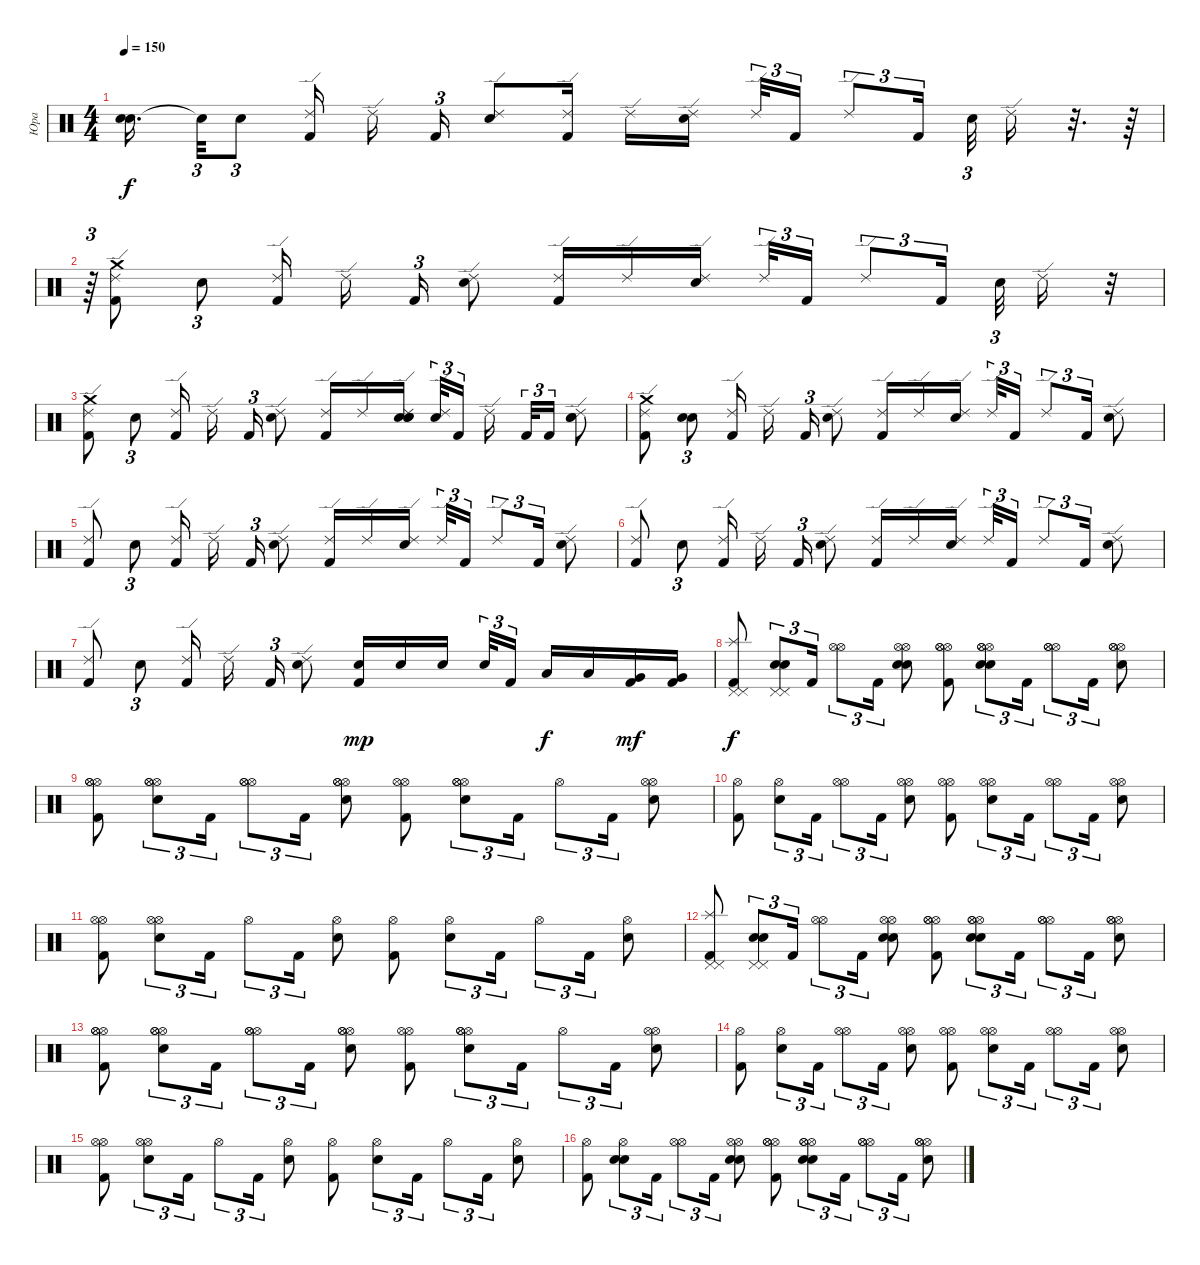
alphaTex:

\track ("Юра" "Юра") {instrument percussion}
\staff {score}
\articulation defaults
\ts (4 4)
\tempo 150
\clef neutral
\ks c
("Snare (hit)"{t} "Snare (hit)"{t}).16{d dy f beam splitsecondary} "Snare (hit)"{t}.32{tu (3 2)} "Electric Snare (hit)".8{tu (3 2)} ("Ride (edge) 2" "Kick (hit) 2").16 "Ride (edge) 2".16{beam splitsecondary} "Kick (hit) 2".16{tu (3 2)} ("Ride (edge) 2" "Electric Snare (hit)").8 ("Ride (edge) 2" "Kick (hit) 2").16 "Ride (edge) 2".16 ("Ride (edge) 2" "Electric Snare (hit)").16{beam splitsecondary} "Ride (edge) 2".32{tu (3 2)} "Kick (hit) 2".16{tu (3 2)} "Ride (edge) 2".8{tu (3 2)} "Kick (hit) 2".16{tu (3 2) beam splitsecondary} "Electric Snare (hit)".32{tu (3 2)} "Ride (edge) 2".16 r.32{d} r.64 |
r.64{tu (3 2)} ("Ride (edge) 2" "Crash medium (hit)" "Kick (hit) 2").8 "Electric Snare (hit)".8{tu (3 2)} ("Kick (hit) 2" "Ride (edge) 2").16 "Ride (edge) 2".16{beam splitsecondary} "Kick (hit) 2".16{tu (3 2)} ("Ride (edge) 2" "Electric Snare (hit)").8 ("Ride (edge) 2" "Kick (hit) 2").16 "Ride (edge) 2".16 ("Ride (edge) 2" "Electric Snare (hit)").16{beam splitsecondary} "Ride (edge) 2".32{tu (3 2)} "Kick (hit) 2".16{tu (3 2)} "Ride (edge) 2".8{tu (3 2)} "Kick (hit) 2".16{tu (3 2) beam splitsecondary} "Electric Snare (hit)".32{tu (3 2)} "Ride (edge) 2".16 r.32 |
("Ride (edge) 2" "Crash medium (hit)" "Kick (hit) 2").8 "Electric Snare (hit)".8{tu (3 2)} ("Kick (hit) 2" "Ride (edge) 2").16 "Ride (edge) 2".16{beam splitsecondary} "Kick (hit) 2".16{tu (3 2)} ("Ride (edge) 2" "Electric Snare (hit)").8 ("Ride (edge) 2" "Kick (hit) 2").16 "Ride (edge) 2".16 ("Ride (edge) 2" "Electric Snare (hit)" "Electric Snare (hit)" "Electric Snare (hit)").16{beam splitsecondary} ("Ride (edge) 2" "Electric Snare (hit)").32{tu (3 2)} "Kick (hit) 2".16{tu (3 2)} "Ride (edge) 2".16{beam splitsecondary} "Kick (hit) 2".32{tu (3 2)} "Kick (hit) 2".16{tu (3 2)} ("Electric Snare (hit)" "Electric Snare (hit)" "Ride (edge) 2").8 |
("Ride (edge) 2" "Kick (hit) 2" "Crash medium (hit)").8 ("Electric Snare (hit)" "Electric Snare (hit)").8{tu (3 2)} ("Ride (edge) 2" "Kick (hit) 2").16 "Ride (edge) 2".16{beam splitsecondary} "Kick (hit) 2".16{tu (3 2)} ("Ride (edge) 2" "Electric Snare (hit)").8 ("Ride (edge) 2" "Kick (hit) 2").16 "Ride (edge) 2".16 ("Ride (edge) 2" "Electric Snare (hit)").16{beam splitsecondary} "Ride (edge) 2".32{tu (3 2)} "Kick (hit) 2".16{tu (3 2)} "Ride (edge) 2".8{tu (3 2)} "Kick (hit) 2".16{tu (3 2)} ("Ride (edge) 2" "Electric Snare (hit)").8 |
("Ride (edge) 2" "Kick (hit) 2").8 "Electric Snare (hit)".8{tu (3 2)} ("Ride (edge) 2" "Kick (hit) 2").16 "Ride (edge) 2".16{beam splitsecondary} "Kick (hit) 2".16{tu (3 2)} ("Electric Snare (hit)" "Ride (edge) 2").8 ("Ride (edge) 2" "Kick (hit) 2").16 "Ride (edge) 2".16 ("Ride (edge) 2" "Electric Snare (hit)").16{beam splitsecondary} "Ride (edge) 2".32{tu (3 2)} "Kick (hit) 2".16{tu (3 2)} "Ride (edge) 2".8{tu (3 2)} "Kick (hit) 2".16{tu (3 2)} ("Ride (edge) 2" "Electric Snare (hit)").8 |
("Kick (hit) 2" "Ride (edge) 2").8 "Electric Snare (hit)".8{tu (3 2)} ("Kick (hit) 2" "Ride (edge) 2").16 "Ride (edge) 2".16{beam splitsecondary} "Kick (hit) 2".16{tu (3 2)} ("Electric Snare (hit)" "Ride (edge) 2").8 ("Kick (hit) 2" "Ride (edge) 2").16 "Ride (edge) 2".16 ("Electric Snare (hit)" "Ride (edge) 2").16{beam splitsecondary} "Ride (edge) 2".32{tu (3 2)} "Kick (hit) 2".16{tu (3 2)} "Ride (edge) 2".8{tu (3 2)} "Kick (hit) 2".16{tu (3 2)} ("Electric Snare (hit)" "Ride (edge) 2").8 |
("Kick (hit) 2" "Ride (edge) 2").8 "Electric Snare (hit)".8{tu (3 2)} ("Kick (hit) 2" "Ride (edge) 2").16 "Ride (edge) 2".16{beam splitsecondary} "Kick (hit) 2".16{tu (3 2)} ("Electric Snare (hit)" "Ride (edge) 2").8 ("Electric Snare (hit)" "Kick (hit) 2").16{dy mp} "Electric Snare (hit)".16 "Electric Snare (hit)".16{beam splitsecondary} "Electric Snare (hit)".32{tu (3 2)} "Kick (hit) 2".16{tu (3 2)} "Low Tom (hit)".16{dy f} "Low Tom (hit)".16 ("Kick (hit) 2" "Very Low Tom (hit)").16{dy mf} ("Very Low Tom (hit)" "Kick (hit) 2").16 |
("Kick (hit) 2" "Splash (hit)" "Pedal Hi-Hat (hit)" "Pedal Hi-Hat (hit)").8{dy f} ("Electric Snare (hit)" "Pedal Hi-Hat (hit)" "Pedal Hi-Hat (hit)" "Electric Snare (hit)").8{tu (3 2)} "Kick (hit) 2".16{tu (3 2)} ("Hi-Hat (open)" "Hi-Hat (open)").8{tu (3 2)} "Kick (hit) 2".16{tu (3 2)} ("Hi-Hat (open)" "Hi-Hat (open)" "Electric Snare (hit)" "Electric Snare (hit)").8 ("Kick (hit) 2" "Hi-Hat (open)" "Hi-Hat (open)" "Hi-Hat (open)").8 ("Hi-Hat (open)" "Hi-Hat (open)" "Hi-Hat (open)" "Electric Snare (hit)" "Electric Snare (hit)").8{tu (3 2)} "Kick (hit) 2".16{tu (3 2)} ("Hi-Hat (open)" "Hi-Hat (open)" "Hi-Hat (open)").8{tu (3 2)} "Kick (hit) 2".16{tu (3 2)} ("Hi-Hat (open)" "Electric Snare (hit)" "Hi-Hat (open)" "Hi-Hat (open)").8 |
("Kick (hit) 2" "Hi-Hat (open)" "Hi-Hat (open)" "Hi-Hat (open)").8 ("Hi-Hat (open)" "Hi-Hat (open)" "Hi-Hat (open)" "Electric Snare (hit)").8{tu (3 2)} "Kick (hit) 2".16{tu (3 2)} ("Hi-Hat (open)" "Hi-Hat (open)" "Hi-Hat (open)").8{tu (3 2)} "Kick (hit) 2".16{tu (3 2)} ("Hi-Hat (open)" "Hi-Hat (open)" "Hi-Hat (open)" "Electric Snare (hit)").8 ("Kick (hit) 2" "Hi-Hat (open)" "Hi-Hat (open)").8 ("Electric Snare (hit)" "Hi-Hat (open)" "Hi-Hat (open)" "Hi-Hat (open)").8{tu (3 2)} "Kick (hit) 2".16{tu (3 2)} "Hi-Hat (open)".8{tu (3 2)} "Kick (hit) 2".16{tu (3 2)} ("Hi-Hat (open)" "Hi-Hat (open)" "Electric Snare (hit)").8 |
("Kick (hit) 2" "Hi-Hat (open)").8 ("Electric Snare (hit)" "Hi-Hat (open)").8{tu (3 2)} "Kick (hit) 2".16{tu (3 2)} ("Hi-Hat (open)" "Hi-Hat (open)").8{tu (3 2)} "Kick (hit) 2".16{tu (3 2)} ("Hi-Hat (open)" "Electric Snare (hit)" "Hi-Hat (open)").8 ("Kick (hit) 2" "Hi-Hat (open)" "Hi-Hat (open)").8 ("Hi-Hat (open)" "Hi-Hat (open)" "Electric Snare (hit)").8{tu (3 2)} "Kick (hit) 2".16{tu (3 2)} ("Hi-Hat (open)" "Hi-Hat (open)").8{tu (3 2)} "Kick (hit) 2".16{tu (3 2)} ("Hi-Hat (open)" "Electric Snare (hit)" "Hi-Hat (open)").8 |
("Kick (hit) 2" "Hi-Hat (open)" "Hi-Hat (open)").8 ("Electric Snare (hit)" "Hi-Hat (open)" "Hi-Hat (open)").8{tu (3 2)} "Kick (hit) 2".16{tu (3 2)} "Hi-Hat (open)".8{tu (3 2)} "Kick (hit) 2".16{tu (3 2)} ("Electric Snare (hit)" "Hi-Hat (open)").8 ("Hi-Hat (open)" "Kick (hit) 2").8 ("Hi-Hat (open)" "Electric Snare (hit)").8{tu (3 2)} "Kick (hit) 2".16{tu (3 2)} "Hi-Hat (open)".8{tu (3 2)} "Kick (hit) 2".16{tu (3 2)} ("Electric Snare (hit)" "Hi-Hat (open)").8 |
("Kick (hit) 2" "Splash (hit)" "Pedal Hi-Hat (hit)" "Pedal Hi-Hat (hit)").8 ("Electric Snare (hit)" "Pedal Hi-Hat (hit)" "Pedal Hi-Hat (hit)" "Electric Snare (hit)").8{tu (3 2)} "Kick (hit) 2".16{tu (3 2)} ("Hi-Hat (open)" "Hi-Hat (open)").8{tu (3 2)} "Kick (hit) 2".16{tu (3 2)} ("Hi-Hat (open)" "Hi-Hat (open)" "Electric Snare (hit)" "Electric Snare (hit)").8 ("Kick (hit) 2" "Hi-Hat (open)" "Hi-Hat (open)" "Hi-Hat (open)").8 ("Hi-Hat (open)" "Hi-Hat (open)" "Hi-Hat (open)" "Electric Snare (hit)" "Electric Snare (hit)").8{tu (3 2)} "Kick (hit) 2".16{tu (3 2)} ("Hi-Hat (open)" "Hi-Hat (open)" "Hi-Hat (open)").8{tu (3 2)} "Kick (hit) 2".16{tu (3 2)} ("Hi-Hat (open)" "Electric Snare (hit)" "Hi-Hat (open)" "Hi-Hat (open)").8 |
("Kick (hit) 2" "Hi-Hat (open)" "Hi-Hat (open)" "Hi-Hat (open)").8 ("Hi-Hat (open)" "Hi-Hat (open)" "Hi-Hat (open)" "Electric Snare (hit)").8{tu (3 2)} "Kick (hit) 2".16{tu (3 2)} ("Hi-Hat (open)" "Hi-Hat (open)" "Hi-Hat (open)").8{tu (3 2)} "Kick (hit) 2".16{tu (3 2)} ("Hi-Hat (open)" "Hi-Hat (open)" "Hi-Hat (open)" "Electric Snare (hit)").8 ("Kick (hit) 2" "Hi-Hat (open)" "Hi-Hat (open)").8 ("Electric Snare (hit)" "Hi-Hat (open)" "Hi-Hat (open)" "Hi-Hat (open)").8{tu (3 2)} "Kick (hit) 2".16{tu (3 2)} "Hi-Hat (open)".8{tu (3 2)} "Kick (hit) 2".16{tu (3 2)} ("Hi-Hat (open)" "Hi-Hat (open)" "Electric Snare (hit)").8 |
("Kick (hit) 2" "Hi-Hat (open)").8 ("Electric Snare (hit)" "Hi-Hat (open)").8{tu (3 2)} "Kick (hit) 2".16{tu (3 2)} ("Hi-Hat (open)" "Hi-Hat (open)").8{tu (3 2)} "Kick (hit) 2".16{tu (3 2)} ("Hi-Hat (open)" "Electric Snare (hit)" "Hi-Hat (open)").8 ("Kick (hit) 2" "Hi-Hat (open)" "Hi-Hat (open)").8 ("Hi-Hat (open)" "Hi-Hat (open)" "Electric Snare (hit)").8{tu (3 2)} "Kick (hit) 2".16{tu (3 2)} ("Hi-Hat (open)" "Hi-Hat (open)").8{tu (3 2)} "Kick (hit) 2".16{tu (3 2)} ("Hi-Hat (open)" "Electric Snare (hit)" "Hi-Hat (open)").8 |
("Kick (hit) 2" "Hi-Hat (open)" "Hi-Hat (open)").8 ("Electric Snare (hit)" "Hi-Hat (open)" "Hi-Hat (open)").8{tu (3 2)} "Kick (hit) 2".16{tu (3 2)} "Hi-Hat (open)".8{tu (3 2)} "Kick (hit) 2".16{tu (3 2)} ("Electric Snare (hit)" "Hi-Hat (open)").8 ("Hi-Hat (open)" "Kick (hit) 2").8 ("Hi-Hat (open)" "Electric Snare (hit)").8{tu (3 2)} "Kick (hit) 2".16{tu (3 2)} "Hi-Hat (open)".8{tu (3 2)} "Kick (hit) 2".16{tu (3 2)} ("Electric Snare (hit)" "Hi-Hat (open)").8 |
("Kick (hit) 2" "Hi-Hat (open)").8 ("Electric Snare (hit)" "Hi-Hat (open)" "Electric Snare (hit)").8{tu (3 2)} "Kick (hit) 2".16{tu (3 2)} ("Hi-Hat (open)" "Hi-Hat (open)").8{tu (3 2)} "Kick (hit) 2".16{tu (3 2)} ("Hi-Hat (open)" "Hi-Hat (open)" "Electric Snare (hit)" "Electric Snare (hit)").8 ("Kick (hit) 2" "Hi-Hat (open)" "Hi-Hat (open)" "Hi-Hat (open)").8 ("Hi-Hat (open)" "Hi-Hat (open)" "Hi-Hat (open)" "Electric Snare (hit)" "Electric Snare (hit)").8{tu (3 2)} "Kick (hit) 2".16{tu (3 2)} ("Hi-Hat (open)" "Hi-Hat (open)" "Hi-Hat (open)").8{tu (3 2)} "Kick (hit) 2".16{tu (3 2)} ("Hi-Hat (open)" "Electric Snare (hit)" "Hi-Hat (open)" "Hi-Hat (open)").8
